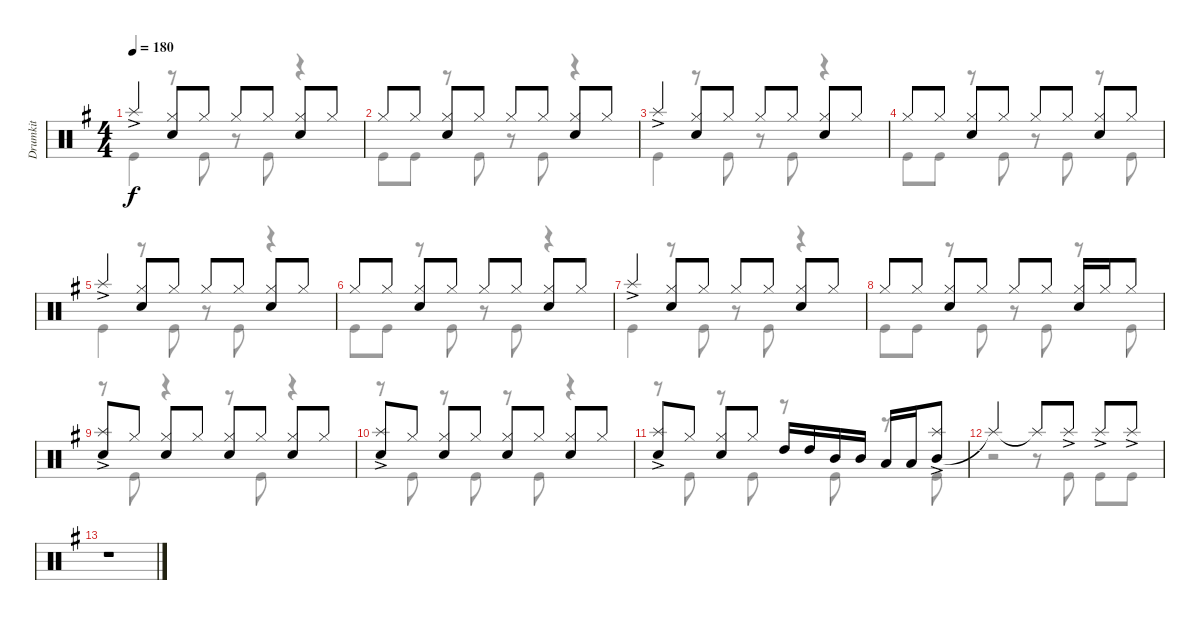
\track ("Drumkit" "Drumkit") {instrument percussion}
\staff {score}
\articulation defaults
\voice
\ts (4 4)
\tempo 180
\clef neutral
\ks g "Splash (hit)"{ac}.4{dy f}
("Snare (hit) 2" "Hi-Hat (closed)").8 "Hi-Hat (closed)".8 "Hi-Hat (closed)".8 "Hi-Hat (closed)".8 ("Hi-Hat (closed)" "Snare (hit) 2").8 "Hi-Hat (closed)".8 |
"Hi-Hat (closed)".8 "Hi-Hat (closed)".8 ("Hi-Hat (closed)" "Snare (hit) 2").8 "Hi-Hat (closed)".8 "Hi-Hat (closed)".8 "Hi-Hat (closed)".8 ("Hi-Hat (closed)" "Snare (hit) 2").8 "Hi-Hat (closed)".8 |
"Splash (hit)"{ac}.4 ("Snare (hit) 2" "Hi-Hat (closed)").8 "Hi-Hat (closed)".8 "Hi-Hat (closed)".8 "Hi-Hat (closed)".8 ("Hi-Hat (closed)" "Snare (hit) 2").8 "Hi-Hat (closed)".8 |
"Hi-Hat (closed)".8 "Hi-Hat (closed)".8 ("Hi-Hat (closed)" "Snare (hit) 2").8 "Hi-Hat (closed)".8 "Hi-Hat (closed)".8 "Hi-Hat (closed)".8 ("Hi-Hat (closed)" "Snare (hit) 2").8 "Hi-Hat (closed)".8 |
"Splash (hit)"{ac}.4 ("Snare (hit) 2" "Hi-Hat (closed)").8 "Hi-Hat (closed)".8 "Hi-Hat (closed)".8 "Hi-Hat (closed)".8 ("Hi-Hat (closed)" "Snare (hit) 2").8 "Hi-Hat (closed)".8 |
"Hi-Hat (closed)".8 "Hi-Hat (closed)".8 ("Hi-Hat (closed)" "Snare (hit) 2").8 "Hi-Hat (closed)".8 "Hi-Hat (closed)".8 "Hi-Hat (closed)".8 ("Hi-Hat (closed)" "Snare (hit) 2").8 "Hi-Hat (closed)".8 |
"Splash (hit)"{ac}.4 ("Snare (hit) 2" "Hi-Hat (closed)").8 "Hi-Hat (closed)".8 "Hi-Hat (closed)".8 "Hi-Hat (closed)".8 ("Hi-Hat (closed)" "Snare (hit) 2").8 "Hi-Hat (closed)".8 |
"Hi-Hat (closed)".8 "Hi-Hat (closed)".8 ("Hi-Hat (closed)" "Snare (hit) 2").8 "Hi-Hat (closed)".8 "Hi-Hat (closed)".8 "Hi-Hat (closed)".8 ("Hi-Hat (closed)" "Snare (hit) 2").16 "Hi-Hat (closed)".16 "Hi-Hat (closed)".8 |
("Snare (hit) 2" "Splash (hit)"{ac}).8 "Hi-Hat (closed)".8 ("Hi-Hat (closed)" "Snare (hit) 2").8 "Hi-Hat (closed)".8 ("Hi-Hat (closed)" "Snare (hit) 2").8 "Hi-Hat (closed)".8 ("Hi-Hat (closed)" "Snare (hit) 2").8 "Hi-Hat (closed)".8 |
("Splash (hit)"{ac} "Snare (hit) 2").8 "Hi-Hat (closed)".8 ("Hi-Hat (closed)" "Snare (hit) 2").8 "Hi-Hat (closed)".8 ("Hi-Hat (closed)" "Snare (hit) 2").8 "Hi-Hat (closed)".8 ("Hi-Hat (closed)" "Snare (hit) 2").8 "Hi-Hat (closed)".8 |
("Splash (hit)"{ac} "Snare (hit) 2").8 "Hi-Hat (closed)".8 ("Hi-Hat (closed)" "Snare (hit) 2").8 "Hi-Hat (closed)".8 "High Tom (hit)".16 "High Tom (hit)".16 "Mid Tom (hit)".16 "Mid Tom (hit)".16 "Low Tom (hit)".16 "Low Tom (hit)".16 ("Mid Tom (hit)" "Splash (hit)"{ac}).8 |
"Splash (hit)"{t}.2 "Splash (hit)"{t}.8 "Splash (hit)"{ac}.8 "Splash (hit)"{ac}.8 "Splash (hit)"{ac}.8 |
r.1
\voice
\clef neutral
\ottava regular
\simile none
\ks g "Kick (hit)".4{dy f}
r.8 "Kick (hit)".8 r.8 "Kick (hit)".8 r.4 |
"Kick (hit)".8 "Kick (hit)".8 r.8 "Kick (hit)".8 r.8 "Kick (hit)".8 r.4 |
"Kick (hit)".4 r.8 "Kick (hit)".8 r.8 "Kick (hit)".8 r.4 |
"Kick (hit)".8 "Kick (hit)".8 r.8 "Kick (hit)".8 r.8 "Kick (hit)".8 r.8 "Kick (hit)".8 |
"Kick (hit)".4 r.8 "Kick (hit)".8 r.8 "Kick (hit)".8 r.4 |
"Kick (hit)".8 "Kick (hit)".8 r.8 "Kick (hit)".8 r.8 "Kick (hit)".8 r.4 |
"Kick (hit)".4 r.8 "Kick (hit)".8 r.8 "Kick (hit)".8 r.4 |
"Kick (hit)".8 "Kick (hit)".8 r.8 "Kick (hit)".8 r.8 "Kick (hit)".8 r.8 "Kick (hit)".8 |
r.8 "Kick (hit)".8 r.4 r.8 "Kick (hit)".8 r.4 |
r.8 "Kick (hit)".8 r.8 "Kick (hit)".8 r.8 "Kick (hit)".8 r.4 |
r.8 "Kick (hit)".8 r.8 "Kick (hit)".8 r.8 "Kick (hit)".8 r.8 "Kick (hit)".8 |
r.2 r.8 "Kick (hit)".8 "Kick (hit)".8 "Kick (hit)".8 |
r.1
